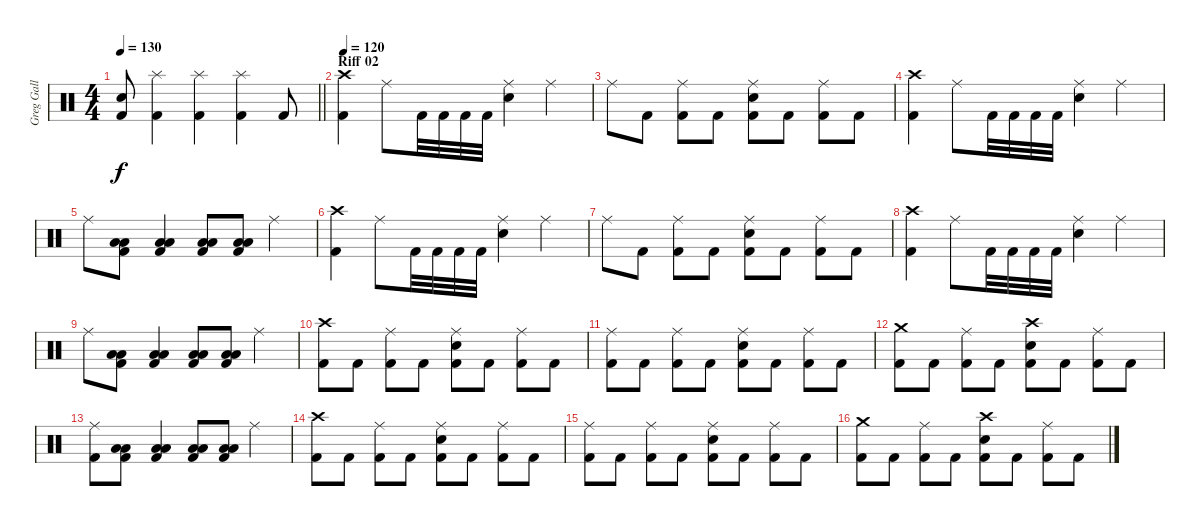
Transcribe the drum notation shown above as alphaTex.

\track ("Greg Gall" "Greg Gall") {instrument percussion}
\staff {score}
\articulation defaults
\ts (4 4)
\tempo 130
\clef neutral
\barLineRight lightlight
\ks c
("Electric Snare (hit)" "Kick (hit) 2").8{dy f} ("Splash (hit)" "Kick (hit) 2").4 ("Splash (hit)" "Kick (hit) 2").4 ("Splash (hit)" "Kick (hit) 2").4 "Kick (hit) 2".8 |
\section ("" "Riff 02")
\tempo 120
("Crash high (hit)" "Kick (hit) 2").4 "Ride (middle)".8 "Kick (hit) 2".32 "Kick (hit) 2".32 "Kick (hit) 2".32 "Kick (hit) 2".32 ("Ride (middle)" "Electric Snare (hit)").4 "Ride (middle)".4 |
"Ride (middle)".8 "Kick (hit) 2".8 ("Ride (middle)" "Kick (hit) 2").8 "Kick (hit) 2".8 ("Ride (middle)" "Electric Snare (hit)" "Kick (hit) 2").8 "Kick (hit) 2".8 ("Ride (middle)" "Kick (hit) 2").8 "Kick (hit) 2".8 |
("Crash high (hit)" "Kick (hit) 2").4 "Ride (middle)".8 "Kick (hit) 2".32 "Kick (hit) 2".32 "Kick (hit) 2".32 "Kick (hit) 2".32 ("Ride (middle)" "Electric Snare (hit)").4 "Ride (middle)".4 |
"Ride (middle)".8 ("Low Floor Tom (hit)" "Low Floor Tom (hit)" "Kick (hit) 2").8 ("Low Floor Tom (hit)" "Low Floor Tom (hit)" "Kick (hit) 2").4 ("Low Floor Tom (hit)" "Low Floor Tom (hit)" "Kick (hit) 2").8 ("Low Floor Tom (hit)" "Low Floor Tom (hit)" "Kick (hit) 2").8 "Ride (middle)".4 |
("Crash high (hit)" "Kick (hit) 2").4 "Ride (middle)".8 "Kick (hit) 2".32 "Kick (hit) 2".32 "Kick (hit) 2".32 "Kick (hit) 2".32 ("Ride (middle)" "Electric Snare (hit)").4 "Ride (middle)".4 |
"Ride (middle)".8 "Kick (hit) 2".8 ("Ride (middle)" "Kick (hit) 2").8 "Kick (hit) 2".8 ("Ride (middle)" "Electric Snare (hit)" "Kick (hit) 2").8 "Kick (hit) 2".8 ("Ride (middle)" "Kick (hit) 2").8 "Kick (hit) 2".8 |
("Crash high (hit)" "Kick (hit) 2").4 "Ride (middle)".8 "Kick (hit) 2".32 "Kick (hit) 2".32 "Kick (hit) 2".32 "Kick (hit) 2".32 ("Ride (middle)" "Electric Snare (hit)").4 "Ride (middle)".4 |
"Ride (middle)".8 ("Low Floor Tom (hit)" "Low Floor Tom (hit)" "Kick (hit) 2").8 ("Low Floor Tom (hit)" "Low Floor Tom (hit)" "Kick (hit) 2").4 ("Low Floor Tom (hit)" "Low Floor Tom (hit)" "Kick (hit) 2").8 ("Low Floor Tom (hit)" "Low Floor Tom (hit)" "Kick (hit) 2").8 "Ride (middle)".4 |
("Crash high (hit)" "Kick (hit) 2").8 "Kick (hit) 2".8 ("Ride (middle)" "Kick (hit) 2").8 "Kick (hit) 2".8 ("Ride (middle)" "Electric Snare (hit)" "Kick (hit) 2").8 "Kick (hit) 2".8 ("Ride (middle)" "Kick (hit) 2").8 "Kick (hit) 2".8 |
("Ride (middle)" "Kick (hit) 2").8 "Kick (hit) 2".8 ("Ride (middle)" "Kick (hit) 2").8 "Kick (hit) 2".8 ("Ride (middle)" "Electric Snare (hit)" "Kick (hit) 2").8 "Kick (hit) 2".8 ("Ride (middle)" "Kick (hit) 2").8 "Kick (hit) 2".8 |
("Crash medium (hit)" "Kick (hit) 2").8 "Kick (hit) 2".8 ("Ride (middle)" "Kick (hit) 2").8 "Kick (hit) 2".8 ("Crash high (hit)" "Electric Snare (hit)" "Kick (hit) 2").8 "Kick (hit) 2".8 ("Ride (middle)" "Kick (hit) 2").8 "Kick (hit) 2".8 |
("Ride (middle)" "Kick (hit) 2").8 ("Low Floor Tom (hit)" "Low Floor Tom (hit)" "Kick (hit) 2").8 ("Low Floor Tom (hit)" "Low Floor Tom (hit)" "Kick (hit) 2").4 ("Low Floor Tom (hit)" "Low Floor Tom (hit)" "Kick (hit) 2").8 ("Low Floor Tom (hit)" "Low Floor Tom (hit)" "Kick (hit) 2").8 "Ride (middle)".4 |
("Crash high (hit)" "Kick (hit) 2").8 "Kick (hit) 2".8 ("Ride (middle)" "Kick (hit) 2").8 "Kick (hit) 2".8 ("Ride (middle)" "Electric Snare (hit)" "Kick (hit) 2").8 "Kick (hit) 2".8 ("Ride (middle)" "Kick (hit) 2").8 "Kick (hit) 2".8 |
("Ride (middle)" "Kick (hit) 2").8 "Kick (hit) 2".8 ("Ride (middle)" "Kick (hit) 2").8 "Kick (hit) 2".8 ("Ride (middle)" "Electric Snare (hit)" "Kick (hit) 2").8 "Kick (hit) 2".8 ("Ride (middle)" "Kick (hit) 2").8 "Kick (hit) 2".8 |
("Crash medium (hit)" "Kick (hit) 2").8 "Kick (hit) 2".8 ("Ride (middle)" "Kick (hit) 2").8 "Kick (hit) 2".8 ("Crash high (hit)" "Electric Snare (hit)" "Kick (hit) 2").8 "Kick (hit) 2".8 ("Ride (middle)" "Kick (hit) 2").8 "Kick (hit) 2".8
